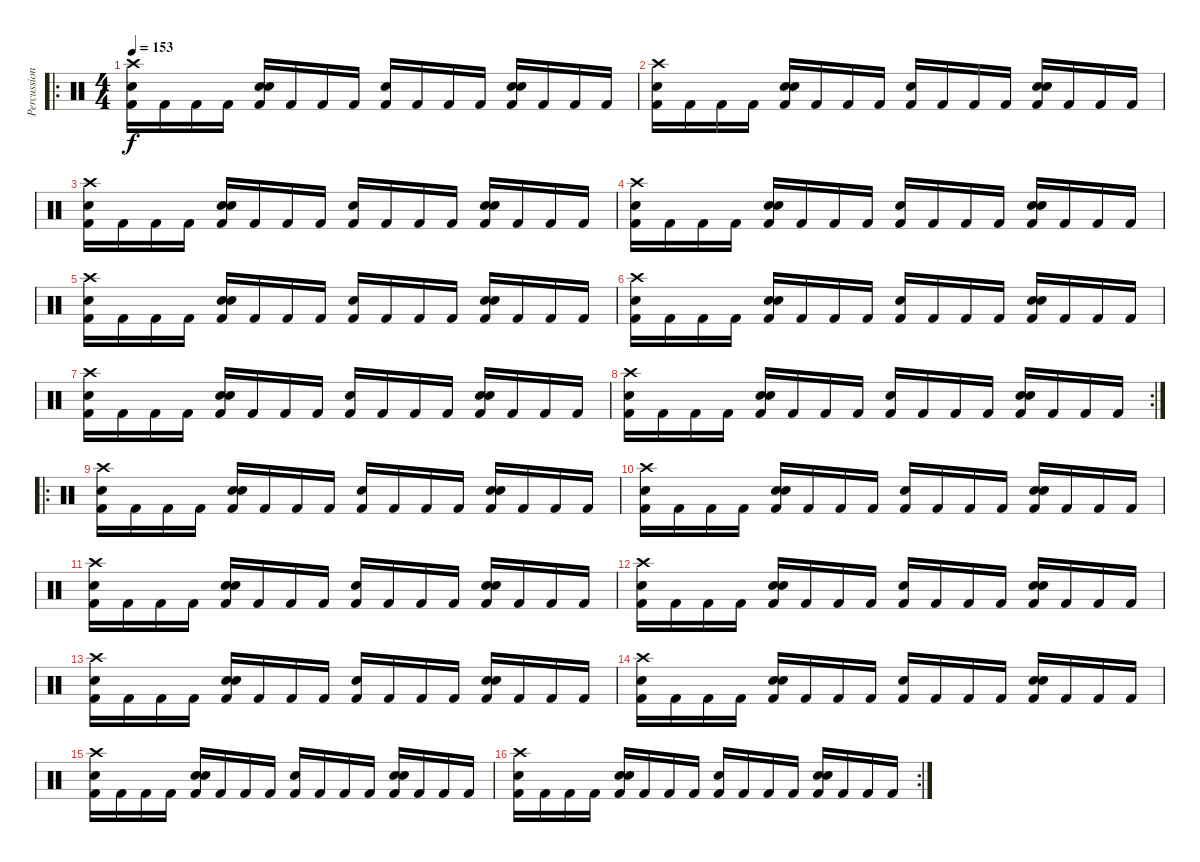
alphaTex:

\track ("Percussion" "Percussion") {instrument percussion}
\staff {score}
\articulation defaults
\ro
\ts (4 4)
\tempo 153
\clef neutral
\ks c
("Crash high (hit)" "Snare (hit) 2" "Kick (hit) 2").16{dy f} "Kick (hit) 2".16 "Kick (hit) 2".16 "Kick (hit) 2".16 ("Hand Clap (hit)" "Snare (hit) 2" "Kick (hit) 2").16 "Kick (hit) 2".16 "Kick (hit) 2".16 "Kick (hit) 2".16 ("Snare (hit) 2" "Kick (hit) 2").16 "Kick (hit) 2".16 "Kick (hit) 2".16 "Kick (hit) 2".16 ("Hand Clap (hit)" "Snare (hit) 2" "Kick (hit) 2").16 "Kick (hit) 2".16 "Kick (hit) 2".16 "Kick (hit) 2".16 |
("Crash high (hit)" "Snare (hit) 2" "Kick (hit) 2").16 "Kick (hit) 2".16 "Kick (hit) 2".16 "Kick (hit) 2".16 ("Hand Clap (hit)" "Snare (hit) 2" "Kick (hit) 2").16 "Kick (hit) 2".16 "Kick (hit) 2".16 "Kick (hit) 2".16 ("Snare (hit) 2" "Kick (hit) 2").16 "Kick (hit) 2".16 "Kick (hit) 2".16 "Kick (hit) 2".16 ("Hand Clap (hit)" "Snare (hit) 2" "Kick (hit) 2").16 "Kick (hit) 2".16 "Kick (hit) 2".16 "Kick (hit) 2".16 |
("Crash high (hit)" "Snare (hit) 2" "Kick (hit) 2").16 "Kick (hit) 2".16 "Kick (hit) 2".16 "Kick (hit) 2".16 ("Hand Clap (hit)" "Snare (hit) 2" "Kick (hit) 2").16 "Kick (hit) 2".16 "Kick (hit) 2".16 "Kick (hit) 2".16 ("Snare (hit) 2" "Kick (hit) 2").16 "Kick (hit) 2".16 "Kick (hit) 2".16 "Kick (hit) 2".16 ("Hand Clap (hit)" "Snare (hit) 2" "Kick (hit) 2").16 "Kick (hit) 2".16 "Kick (hit) 2".16 "Kick (hit) 2".16 |
("Crash high (hit)" "Snare (hit) 2" "Kick (hit) 2").16 "Kick (hit) 2".16 "Kick (hit) 2".16 "Kick (hit) 2".16 ("Hand Clap (hit)" "Snare (hit) 2" "Kick (hit) 2").16 "Kick (hit) 2".16 "Kick (hit) 2".16 "Kick (hit) 2".16 ("Snare (hit) 2" "Kick (hit) 2").16 "Kick (hit) 2".16 "Kick (hit) 2".16 "Kick (hit) 2".16 ("Hand Clap (hit)" "Snare (hit) 2" "Kick (hit) 2").16 "Kick (hit) 2".16 "Kick (hit) 2".16 "Kick (hit) 2".16 |
("Crash high (hit)" "Snare (hit) 2" "Kick (hit) 2").16 "Kick (hit) 2".16 "Kick (hit) 2".16 "Kick (hit) 2".16 ("Hand Clap (hit)" "Snare (hit) 2" "Kick (hit) 2").16 "Kick (hit) 2".16 "Kick (hit) 2".16 "Kick (hit) 2".16 ("Snare (hit) 2" "Kick (hit) 2").16 "Kick (hit) 2".16 "Kick (hit) 2".16 "Kick (hit) 2".16 ("Hand Clap (hit)" "Snare (hit) 2" "Kick (hit) 2").16 "Kick (hit) 2".16 "Kick (hit) 2".16 "Kick (hit) 2".16 |
("Crash high (hit)" "Snare (hit) 2" "Kick (hit) 2").16 "Kick (hit) 2".16 "Kick (hit) 2".16 "Kick (hit) 2".16 ("Hand Clap (hit)" "Snare (hit) 2" "Kick (hit) 2").16 "Kick (hit) 2".16 "Kick (hit) 2".16 "Kick (hit) 2".16 ("Snare (hit) 2" "Kick (hit) 2").16 "Kick (hit) 2".16 "Kick (hit) 2".16 "Kick (hit) 2".16 ("Hand Clap (hit)" "Snare (hit) 2" "Kick (hit) 2").16 "Kick (hit) 2".16 "Kick (hit) 2".16 "Kick (hit) 2".16 |
("Crash high (hit)" "Snare (hit) 2" "Kick (hit) 2").16 "Kick (hit) 2".16 "Kick (hit) 2".16 "Kick (hit) 2".16 ("Hand Clap (hit)" "Snare (hit) 2" "Kick (hit) 2").16 "Kick (hit) 2".16 "Kick (hit) 2".16 "Kick (hit) 2".16 ("Snare (hit) 2" "Kick (hit) 2").16 "Kick (hit) 2".16 "Kick (hit) 2".16 "Kick (hit) 2".16 ("Hand Clap (hit)" "Snare (hit) 2" "Kick (hit) 2").16 "Kick (hit) 2".16 "Kick (hit) 2".16 "Kick (hit) 2".16 |
\rc 2
("Crash high (hit)" "Snare (hit) 2" "Kick (hit) 2").16 "Kick (hit) 2".16 "Kick (hit) 2".16 "Kick (hit) 2".16 ("Hand Clap (hit)" "Snare (hit) 2" "Kick (hit) 2").16 "Kick (hit) 2".16 "Kick (hit) 2".16 "Kick (hit) 2".16 ("Snare (hit) 2" "Kick (hit) 2").16 "Kick (hit) 2".16 "Kick (hit) 2".16 "Kick (hit) 2".16 ("Hand Clap (hit)" "Snare (hit) 2" "Kick (hit) 2").16 "Kick (hit) 2".16 "Kick (hit) 2".16 "Kick (hit) 2".16 |
\ro
("Crash high (hit)" "Snare (hit) 2" "Kick (hit) 2").16 "Kick (hit) 2".16 "Kick (hit) 2".16 "Kick (hit) 2".16 ("Hand Clap (hit)" "Snare (hit) 2" "Kick (hit) 2").16 "Kick (hit) 2".16 "Kick (hit) 2".16 "Kick (hit) 2".16 ("Snare (hit) 2" "Kick (hit) 2").16 "Kick (hit) 2".16 "Kick (hit) 2".16 "Kick (hit) 2".16 ("Hand Clap (hit)" "Snare (hit) 2" "Kick (hit) 2").16 "Kick (hit) 2".16 "Kick (hit) 2".16 "Kick (hit) 2".16 |
("Crash high (hit)" "Snare (hit) 2" "Kick (hit) 2").16 "Kick (hit) 2".16 "Kick (hit) 2".16 "Kick (hit) 2".16 ("Hand Clap (hit)" "Snare (hit) 2" "Kick (hit) 2").16 "Kick (hit) 2".16 "Kick (hit) 2".16 "Kick (hit) 2".16 ("Snare (hit) 2" "Kick (hit) 2").16 "Kick (hit) 2".16 "Kick (hit) 2".16 "Kick (hit) 2".16 ("Hand Clap (hit)" "Snare (hit) 2" "Kick (hit) 2").16 "Kick (hit) 2".16 "Kick (hit) 2".16 "Kick (hit) 2".16 |
("Crash high (hit)" "Snare (hit) 2" "Kick (hit) 2").16 "Kick (hit) 2".16 "Kick (hit) 2".16 "Kick (hit) 2".16 ("Hand Clap (hit)" "Snare (hit) 2" "Kick (hit) 2").16 "Kick (hit) 2".16 "Kick (hit) 2".16 "Kick (hit) 2".16 ("Snare (hit) 2" "Kick (hit) 2").16 "Kick (hit) 2".16 "Kick (hit) 2".16 "Kick (hit) 2".16 ("Hand Clap (hit)" "Snare (hit) 2" "Kick (hit) 2").16 "Kick (hit) 2".16 "Kick (hit) 2".16 "Kick (hit) 2".16 |
("Crash high (hit)" "Snare (hit) 2" "Kick (hit) 2").16 "Kick (hit) 2".16 "Kick (hit) 2".16 "Kick (hit) 2".16 ("Hand Clap (hit)" "Snare (hit) 2" "Kick (hit) 2").16 "Kick (hit) 2".16 "Kick (hit) 2".16 "Kick (hit) 2".16 ("Snare (hit) 2" "Kick (hit) 2").16 "Kick (hit) 2".16 "Kick (hit) 2".16 "Kick (hit) 2".16 ("Hand Clap (hit)" "Snare (hit) 2" "Kick (hit) 2").16 "Kick (hit) 2".16 "Kick (hit) 2".16 "Kick (hit) 2".16 |
("Crash high (hit)" "Snare (hit) 2" "Kick (hit) 2").16 "Kick (hit) 2".16 "Kick (hit) 2".16 "Kick (hit) 2".16 ("Hand Clap (hit)" "Snare (hit) 2" "Kick (hit) 2").16 "Kick (hit) 2".16 "Kick (hit) 2".16 "Kick (hit) 2".16 ("Snare (hit) 2" "Kick (hit) 2").16 "Kick (hit) 2".16 "Kick (hit) 2".16 "Kick (hit) 2".16 ("Hand Clap (hit)" "Snare (hit) 2" "Kick (hit) 2").16 "Kick (hit) 2".16 "Kick (hit) 2".16 "Kick (hit) 2".16 |
("Crash high (hit)" "Snare (hit) 2" "Kick (hit) 2").16 "Kick (hit) 2".16 "Kick (hit) 2".16 "Kick (hit) 2".16 ("Hand Clap (hit)" "Snare (hit) 2" "Kick (hit) 2").16 "Kick (hit) 2".16 "Kick (hit) 2".16 "Kick (hit) 2".16 ("Snare (hit) 2" "Kick (hit) 2").16 "Kick (hit) 2".16 "Kick (hit) 2".16 "Kick (hit) 2".16 ("Hand Clap (hit)" "Snare (hit) 2" "Kick (hit) 2").16 "Kick (hit) 2".16 "Kick (hit) 2".16 "Kick (hit) 2".16 |
("Crash high (hit)" "Snare (hit) 2" "Kick (hit) 2").16 "Kick (hit) 2".16 "Kick (hit) 2".16 "Kick (hit) 2".16 ("Hand Clap (hit)" "Snare (hit) 2" "Kick (hit) 2").16 "Kick (hit) 2".16 "Kick (hit) 2".16 "Kick (hit) 2".16 ("Snare (hit) 2" "Kick (hit) 2").16 "Kick (hit) 2".16 "Kick (hit) 2".16 "Kick (hit) 2".16 ("Hand Clap (hit)" "Snare (hit) 2" "Kick (hit) 2").16 "Kick (hit) 2".16 "Kick (hit) 2".16 "Kick (hit) 2".16 |
\rc 2
("Crash high (hit)" "Snare (hit) 2" "Kick (hit) 2").16 "Kick (hit) 2".16 "Kick (hit) 2".16 "Kick (hit) 2".16 ("Hand Clap (hit)" "Snare (hit) 2" "Kick (hit) 2").16 "Kick (hit) 2".16 "Kick (hit) 2".16 "Kick (hit) 2".16 ("Snare (hit) 2" "Kick (hit) 2").16 "Kick (hit) 2".16 "Kick (hit) 2".16 "Kick (hit) 2".16 ("Hand Clap (hit)" "Snare (hit) 2" "Kick (hit) 2").16 "Kick (hit) 2".16 "Kick (hit) 2".16 "Kick (hit) 2".16
